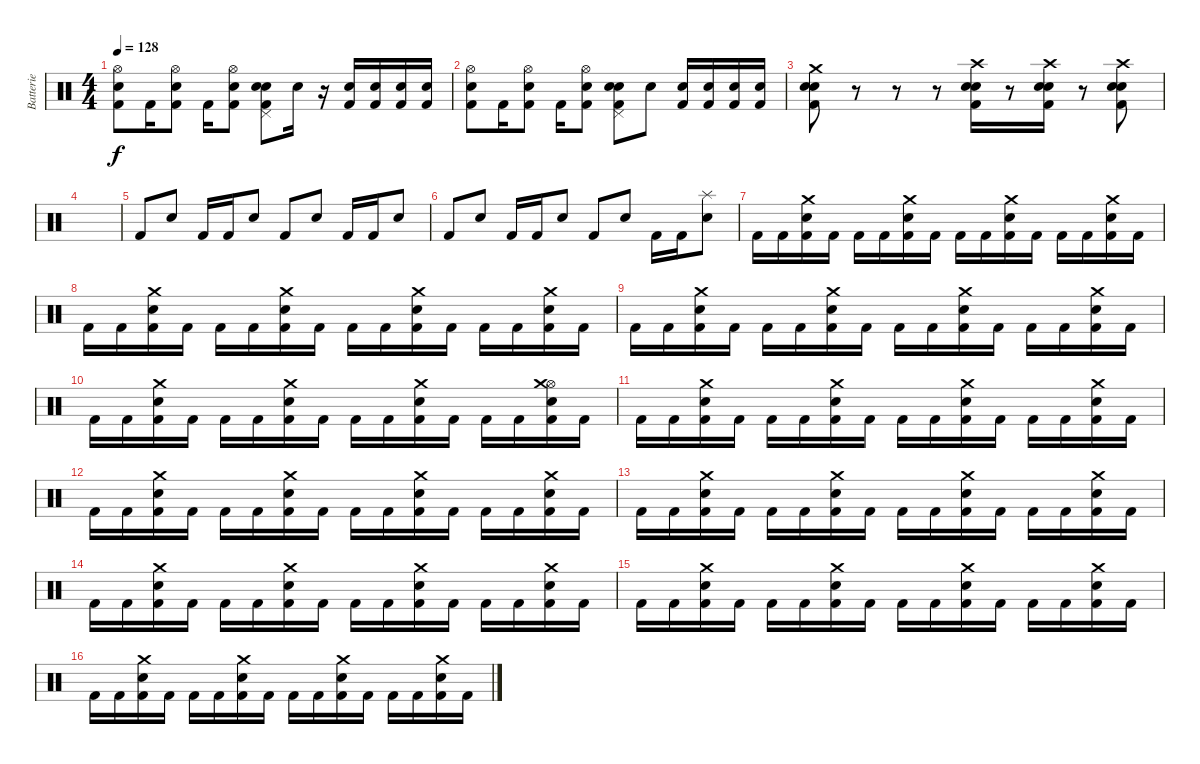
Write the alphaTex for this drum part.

\track ("Batterie" "Batterie") {instrument percussion}
\staff {score}
\articulation defaults
\ts (4 4)
\tempo 128
\clef neutral
\ks c
("Hi-Hat (open)" "Electric Snare (hit)" "Kick (hit) 2").8{dy f} "Kick (hit) 2".16 ("Hi-Hat (open)" "Electric Snare (hit)" "Kick (hit) 2").8 "Kick (hit) 2".16 ("Hi-Hat (open)" "Electric Snare (hit)" "Kick (hit) 2").8 ("Pedal Hi-Hat (hit)" "Kick (hit) 2" "Snare (hit) 2" "Electric Snare (hit)").8 "Electric Snare (hit)".16 r.16 ("Kick (hit) 2" "Electric Snare (hit)").16 ("Kick (hit) 2" "Electric Snare (hit)").16 ("Kick (hit) 2" "Electric Snare (hit)").16 ("Kick (hit) 2" "Electric Snare (hit)").16 |
("Hi-Hat (open)" "Electric Snare (hit)" "Kick (hit) 2").8 "Kick (hit) 2".16 ("Hi-Hat (open)" "Electric Snare (hit)" "Kick (hit) 2").8 "Kick (hit) 2".16 ("Hi-Hat (open)" "Electric Snare (hit)" "Kick (hit) 2").8 ("Pedal Hi-Hat (hit)" "Kick (hit) 2" "Snare (hit) 2" "Electric Snare (hit)").8 "Electric Snare (hit)".8 ("Kick (hit) 2" "Electric Snare (hit)").16 ("Kick (hit) 2" "Electric Snare (hit)").16 ("Kick (hit) 2" "Electric Snare (hit)").16 ("Kick (hit) 2" "Electric Snare (hit)").16 |
("Crash medium (hit)" "Snare (hit) 2" "Electric Snare (hit)" "Kick (hit) 2").8 r.8 r.8 r.8 ("Crash high (hit)" "Snare (hit) 2" "Electric Snare (hit)" "Kick (hit) 2").16 r.8 ("Crash high (hit)" "Snare (hit) 2" "Electric Snare (hit)" "Kick (hit) 2").16 r.8 ("Crash high (hit)" "Snare (hit) 2" "Electric Snare (hit)" "Kick (hit) 2").8 |
|
"Kick (hit) 2".8 "Electric Snare (hit)".8 "Kick (hit) 2".16 "Kick (hit) 2".16 "Electric Snare (hit)".8 "Kick (hit) 2".8 "Electric Snare (hit)".8 "Kick (hit) 2".16 "Kick (hit) 2".16 "Electric Snare (hit)".8 |
"Kick (hit) 2".8 "Electric Snare (hit)".8 "Kick (hit) 2".16 "Kick (hit) 2".16 "Electric Snare (hit)".8 "Kick (hit) 2".8 "Electric Snare (hit)".8 "Kick (hit) 2".16 "Kick (hit) 2".16 ("Splash (hit)" "Electric Snare (hit)").8 |
"Kick (hit) 2".16 "Kick (hit) 2".16 ("Crash medium (hit)" "Electric Snare (hit)" "Kick (hit) 2").16 "Kick (hit) 2".16 "Kick (hit) 2".16 "Kick (hit) 2".16 ("Crash medium (hit)" "Electric Snare (hit)" "Kick (hit) 2").16 "Kick (hit) 2".16 "Kick (hit) 2".16 "Kick (hit) 2".16 ("Electric Snare (hit)" "Crash medium (hit)" "Kick (hit) 2").16 "Kick (hit) 2".16 "Kick (hit) 2".16 "Kick (hit) 2".16 ("Crash medium (hit)" "Electric Snare (hit)" "Kick (hit) 2").16 "Kick (hit) 2".16 |
"Kick (hit) 2".16 "Kick (hit) 2".16 ("Crash medium (hit)" "Electric Snare (hit)" "Kick (hit) 2").16 "Kick (hit) 2".16 "Kick (hit) 2".16 "Kick (hit) 2".16 ("Crash medium (hit)" "Electric Snare (hit)" "Kick (hit) 2").16 "Kick (hit) 2".16 "Kick (hit) 2".16 "Kick (hit) 2".16 ("Electric Snare (hit)" "Crash medium (hit)" "Kick (hit) 2").16 "Kick (hit) 2".16 "Kick (hit) 2".16 "Kick (hit) 2".16 ("Crash medium (hit)" "Electric Snare (hit)" "Kick (hit) 2").16 "Kick (hit) 2".16 |
"Kick (hit) 2".16 "Kick (hit) 2".16 ("Crash medium (hit)" "Electric Snare (hit)" "Kick (hit) 2").16 "Kick (hit) 2".16 "Kick (hit) 2".16 "Kick (hit) 2".16 ("Crash medium (hit)" "Electric Snare (hit)" "Kick (hit) 2").16 "Kick (hit) 2".16 "Kick (hit) 2".16 "Kick (hit) 2".16 ("Electric Snare (hit)" "Crash medium (hit)" "Kick (hit) 2").16 "Kick (hit) 2".16 "Kick (hit) 2".16 "Kick (hit) 2".16 ("Crash medium (hit)" "Electric Snare (hit)" "Kick (hit) 2").16 "Kick (hit) 2".16 |
"Kick (hit) 2".16 "Kick (hit) 2".16 ("Crash medium (hit)" "Electric Snare (hit)" "Kick (hit) 2").16 "Kick (hit) 2".16 "Kick (hit) 2".16 "Kick (hit) 2".16 ("Crash medium (hit)" "Electric Snare (hit)" "Kick (hit) 2").16 "Kick (hit) 2".16 "Kick (hit) 2".16 "Kick (hit) 2".16 ("Electric Snare (hit)" "Crash medium (hit)" "Kick (hit) 2").16 "Kick (hit) 2".16 "Kick (hit) 2".16 "Kick (hit) 2".16 ("Hi-Hat (open)" "Crash medium (hit)" "Electric Snare (hit)" "Kick (hit) 2").16 "Kick (hit) 2".16 |
"Kick (hit) 2".16 "Kick (hit) 2".16 ("Crash medium (hit)" "Electric Snare (hit)" "Kick (hit) 2").16 "Kick (hit) 2".16 "Kick (hit) 2".16 "Kick (hit) 2".16 ("Crash medium (hit)" "Electric Snare (hit)" "Kick (hit) 2").16 "Kick (hit) 2".16 "Kick (hit) 2".16 "Kick (hit) 2".16 ("Electric Snare (hit)" "Crash medium (hit)" "Kick (hit) 2").16 "Kick (hit) 2".16 "Kick (hit) 2".16 "Kick (hit) 2".16 ("Crash medium (hit)" "Electric Snare (hit)" "Kick (hit) 2").16 "Kick (hit) 2".16 |
"Kick (hit) 2".16 "Kick (hit) 2".16 ("Crash medium (hit)" "Electric Snare (hit)" "Kick (hit) 2").16 "Kick (hit) 2".16 "Kick (hit) 2".16 "Kick (hit) 2".16 ("Crash medium (hit)" "Electric Snare (hit)" "Kick (hit) 2").16 "Kick (hit) 2".16 "Kick (hit) 2".16 "Kick (hit) 2".16 ("Electric Snare (hit)" "Crash medium (hit)" "Kick (hit) 2").16 "Kick (hit) 2".16 "Kick (hit) 2".16 "Kick (hit) 2".16 ("Crash medium (hit)" "Electric Snare (hit)" "Kick (hit) 2").16 "Kick (hit) 2".16 |
"Kick (hit) 2".16 "Kick (hit) 2".16 ("Crash medium (hit)" "Electric Snare (hit)" "Kick (hit) 2").16 "Kick (hit) 2".16 "Kick (hit) 2".16 "Kick (hit) 2".16 ("Crash medium (hit)" "Electric Snare (hit)" "Kick (hit) 2").16 "Kick (hit) 2".16 "Kick (hit) 2".16 "Kick (hit) 2".16 ("Electric Snare (hit)" "Crash medium (hit)" "Kick (hit) 2").16 "Kick (hit) 2".16 "Kick (hit) 2".16 "Kick (hit) 2".16 ("Crash medium (hit)" "Electric Snare (hit)" "Kick (hit) 2").16 "Kick (hit) 2".16 |
"Kick (hit) 2".16 "Kick (hit) 2".16 ("Crash medium (hit)" "Electric Snare (hit)" "Kick (hit) 2").16 "Kick (hit) 2".16 "Kick (hit) 2".16 "Kick (hit) 2".16 ("Crash medium (hit)" "Electric Snare (hit)" "Kick (hit) 2").16 "Kick (hit) 2".16 "Kick (hit) 2".16 "Kick (hit) 2".16 ("Electric Snare (hit)" "Crash medium (hit)" "Kick (hit) 2").16 "Kick (hit) 2".16 "Kick (hit) 2".16 "Kick (hit) 2".16 ("Crash medium (hit)" "Electric Snare (hit)" "Kick (hit) 2").16 "Kick (hit) 2".16 |
"Kick (hit) 2".16 "Kick (hit) 2".16 ("Crash medium (hit)" "Electric Snare (hit)" "Kick (hit) 2").16 "Kick (hit) 2".16 "Kick (hit) 2".16 "Kick (hit) 2".16 ("Crash medium (hit)" "Electric Snare (hit)" "Kick (hit) 2").16 "Kick (hit) 2".16 "Kick (hit) 2".16 "Kick (hit) 2".16 ("Electric Snare (hit)" "Crash medium (hit)" "Kick (hit) 2").16 "Kick (hit) 2".16 "Kick (hit) 2".16 "Kick (hit) 2".16 ("Crash medium (hit)" "Electric Snare (hit)" "Kick (hit) 2").16 "Kick (hit) 2".16 |
"Kick (hit) 2".16 "Kick (hit) 2".16 ("Crash medium (hit)" "Electric Snare (hit)" "Kick (hit) 2").16 "Kick (hit) 2".16 "Kick (hit) 2".16 "Kick (hit) 2".16 ("Crash medium (hit)" "Electric Snare (hit)" "Kick (hit) 2").16 "Kick (hit) 2".16 "Kick (hit) 2".16 "Kick (hit) 2".16 ("Electric Snare (hit)" "Crash medium (hit)" "Kick (hit) 2").16 "Kick (hit) 2".16 "Kick (hit) 2".16 "Kick (hit) 2".16 ("Crash medium (hit)" "Electric Snare (hit)" "Kick (hit) 2").16 "Kick (hit) 2".16
